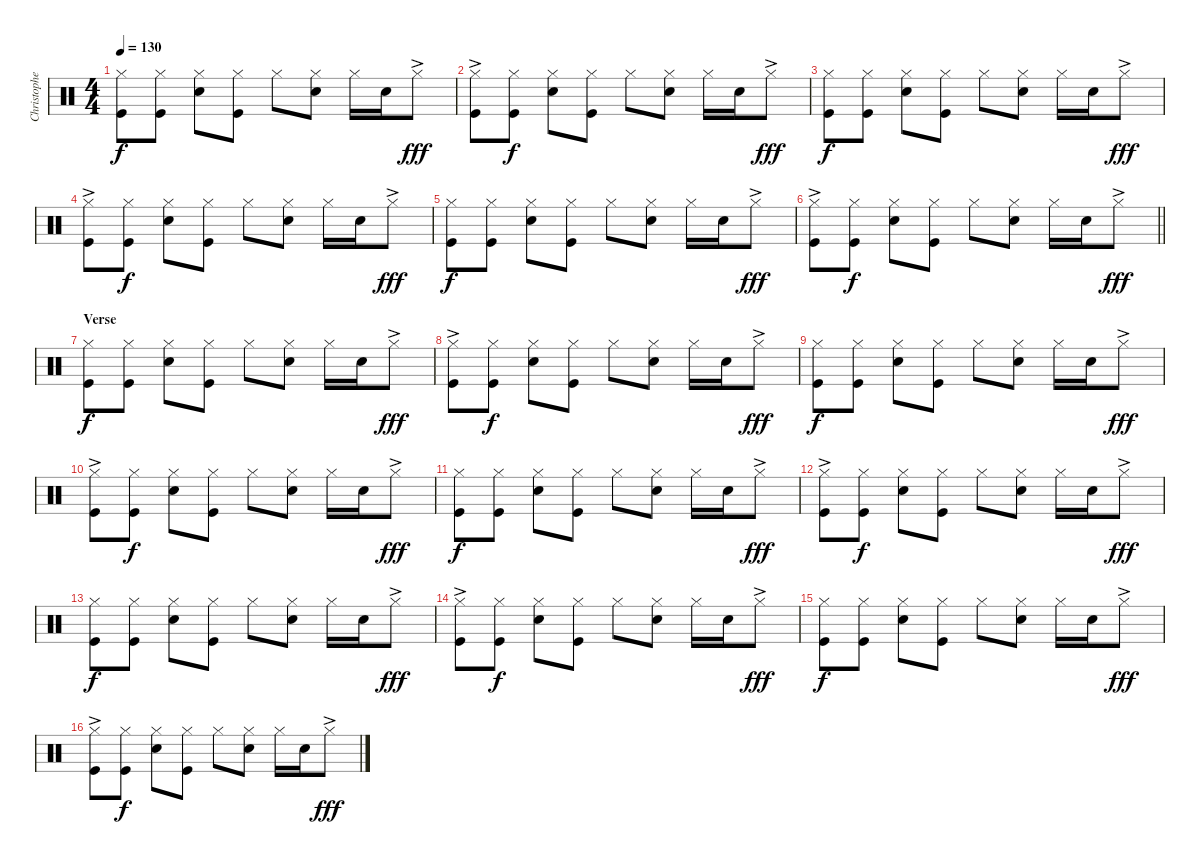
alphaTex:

\track ("Christopher - Drums" "Christophe") {instrument percussion}
\staff {score}
\articulation defaults
\ts (4 4)
\tempo 130
\clef neutral
\ks c
("Hi-Hat (closed)" "Kick (hit)").8{dy f} ("Hi-Hat (closed)" "Kick (hit)").8 ("Hi-Hat (closed)" "Snare (hit) 2").8 ("Hi-Hat (closed)" "Kick (hit)").8 "Hi-Hat (closed)".8 ("Hi-Hat (closed)" "Snare (hit) 2").8 "Hi-Hat (closed)".16 "Snare (hit) 2".16 "Hi-Hat (closed)"{ac}.8{dy fff} |
("Hi-Hat (closed)"{ac} "Kick (hit)").8 ("Hi-Hat (closed)" "Kick (hit)").8{dy f} ("Hi-Hat (closed)" "Snare (hit) 2").8 ("Hi-Hat (closed)" "Kick (hit)").8 "Hi-Hat (closed)".8 ("Hi-Hat (closed)" "Snare (hit) 2").8 "Hi-Hat (closed)".16 "Snare (hit) 2".16 "Hi-Hat (closed)"{ac}.8{dy fff} |
("Hi-Hat (closed)" "Kick (hit)").8{dy f} ("Hi-Hat (closed)" "Kick (hit)").8 ("Hi-Hat (closed)" "Snare (hit) 2").8 ("Hi-Hat (closed)" "Kick (hit)").8 "Hi-Hat (closed)".8 ("Hi-Hat (closed)" "Snare (hit) 2").8 "Hi-Hat (closed)".16 "Snare (hit) 2".16 "Hi-Hat (closed)"{ac}.8{dy fff} |
("Hi-Hat (closed)"{ac} "Kick (hit)").8 ("Hi-Hat (closed)" "Kick (hit)").8{dy f} ("Hi-Hat (closed)" "Snare (hit) 2").8 ("Hi-Hat (closed)" "Kick (hit)").8 "Hi-Hat (closed)".8 ("Hi-Hat (closed)" "Snare (hit) 2").8 "Hi-Hat (closed)".16 "Snare (hit) 2".16 "Hi-Hat (closed)"{ac}.8{dy fff} |
("Hi-Hat (closed)" "Kick (hit)").8{dy f} ("Hi-Hat (closed)" "Kick (hit)").8 ("Hi-Hat (closed)" "Snare (hit) 2").8 ("Hi-Hat (closed)" "Kick (hit)").8 "Hi-Hat (closed)".8 ("Hi-Hat (closed)" "Snare (hit) 2").8 "Hi-Hat (closed)".16 "Snare (hit) 2".16 "Hi-Hat (closed)"{ac}.8{dy fff} |
\barLineRight lightlight
("Hi-Hat (closed)"{ac} "Kick (hit)").8 ("Hi-Hat (closed)" "Kick (hit)").8{dy f} ("Hi-Hat (closed)" "Snare (hit) 2").8 ("Hi-Hat (closed)" "Kick (hit)").8 "Hi-Hat (closed)".8 ("Hi-Hat (closed)" "Snare (hit) 2").8 "Hi-Hat (closed)".16 "Snare (hit) 2".16 "Hi-Hat (closed)"{ac}.8{dy fff} |
\section ("" "Verse")
("Hi-Hat (closed)" "Kick (hit)").8{dy f} ("Hi-Hat (closed)" "Kick (hit)").8 ("Hi-Hat (closed)" "Snare (hit) 2").8 ("Hi-Hat (closed)" "Kick (hit)").8 "Hi-Hat (closed)".8 ("Hi-Hat (closed)" "Snare (hit) 2").8 "Hi-Hat (closed)".16 "Snare (hit) 2".16 "Hi-Hat (closed)"{ac}.8{dy fff} |
("Hi-Hat (closed)"{ac} "Kick (hit)").8 ("Hi-Hat (closed)" "Kick (hit)").8{dy f} ("Hi-Hat (closed)" "Snare (hit) 2").8 ("Hi-Hat (closed)" "Kick (hit)").8 "Hi-Hat (closed)".8 ("Hi-Hat (closed)" "Snare (hit) 2").8 "Hi-Hat (closed)".16 "Snare (hit) 2".16 "Hi-Hat (closed)"{ac}.8{dy fff} |
("Hi-Hat (closed)" "Kick (hit)").8{dy f} ("Hi-Hat (closed)" "Kick (hit)").8 ("Hi-Hat (closed)" "Snare (hit) 2").8 ("Hi-Hat (closed)" "Kick (hit)").8 "Hi-Hat (closed)".8 ("Hi-Hat (closed)" "Snare (hit) 2").8 "Hi-Hat (closed)".16 "Snare (hit) 2".16 "Hi-Hat (closed)"{ac}.8{dy fff} |
("Hi-Hat (closed)"{ac} "Kick (hit)").8 ("Hi-Hat (closed)" "Kick (hit)").8{dy f} ("Hi-Hat (closed)" "Snare (hit) 2").8 ("Hi-Hat (closed)" "Kick (hit)").8 "Hi-Hat (closed)".8 ("Hi-Hat (closed)" "Snare (hit) 2").8 "Hi-Hat (closed)".16 "Snare (hit) 2".16 "Hi-Hat (closed)"{ac}.8{dy fff} |
("Hi-Hat (closed)" "Kick (hit)").8{dy f} ("Hi-Hat (closed)" "Kick (hit)").8 ("Hi-Hat (closed)" "Snare (hit) 2").8 ("Hi-Hat (closed)" "Kick (hit)").8 "Hi-Hat (closed)".8 ("Hi-Hat (closed)" "Snare (hit) 2").8 "Hi-Hat (closed)".16 "Snare (hit) 2".16 "Hi-Hat (closed)"{ac}.8{dy fff} |
("Hi-Hat (closed)"{ac} "Kick (hit)").8 ("Hi-Hat (closed)" "Kick (hit)").8{dy f} ("Hi-Hat (closed)" "Snare (hit) 2").8 ("Hi-Hat (closed)" "Kick (hit)").8 "Hi-Hat (closed)".8 ("Hi-Hat (closed)" "Snare (hit) 2").8 "Hi-Hat (closed)".16 "Snare (hit) 2".16 "Hi-Hat (closed)"{ac}.8{dy fff} |
("Hi-Hat (closed)" "Kick (hit)").8{dy f} ("Hi-Hat (closed)" "Kick (hit)").8 ("Hi-Hat (closed)" "Snare (hit) 2").8 ("Hi-Hat (closed)" "Kick (hit)").8 "Hi-Hat (closed)".8 ("Hi-Hat (closed)" "Snare (hit) 2").8 "Hi-Hat (closed)".16 "Snare (hit) 2".16 "Hi-Hat (closed)"{ac}.8{dy fff} |
("Hi-Hat (closed)"{ac} "Kick (hit)").8 ("Hi-Hat (closed)" "Kick (hit)").8{dy f} ("Hi-Hat (closed)" "Snare (hit) 2").8 ("Hi-Hat (closed)" "Kick (hit)").8 "Hi-Hat (closed)".8 ("Hi-Hat (closed)" "Snare (hit) 2").8 "Hi-Hat (closed)".16 "Snare (hit) 2".16 "Hi-Hat (closed)"{ac}.8{dy fff} |
("Hi-Hat (closed)" "Kick (hit)").8{dy f} ("Hi-Hat (closed)" "Kick (hit)").8 ("Hi-Hat (closed)" "Snare (hit) 2").8 ("Hi-Hat (closed)" "Kick (hit)").8 "Hi-Hat (closed)".8 ("Hi-Hat (closed)" "Snare (hit) 2").8 "Hi-Hat (closed)".16 "Snare (hit) 2".16 "Hi-Hat (closed)"{ac}.8{dy fff} |
("Hi-Hat (closed)"{ac} "Kick (hit)").8 ("Hi-Hat (closed)" "Kick (hit)").8{dy f} ("Hi-Hat (closed)" "Snare (hit) 2").8 ("Hi-Hat (closed)" "Kick (hit)").8 "Hi-Hat (closed)".8 ("Hi-Hat (closed)" "Snare (hit) 2").8 "Hi-Hat (closed)".16 "Snare (hit) 2".16 "Hi-Hat (closed)"{ac}.8{dy fff}
